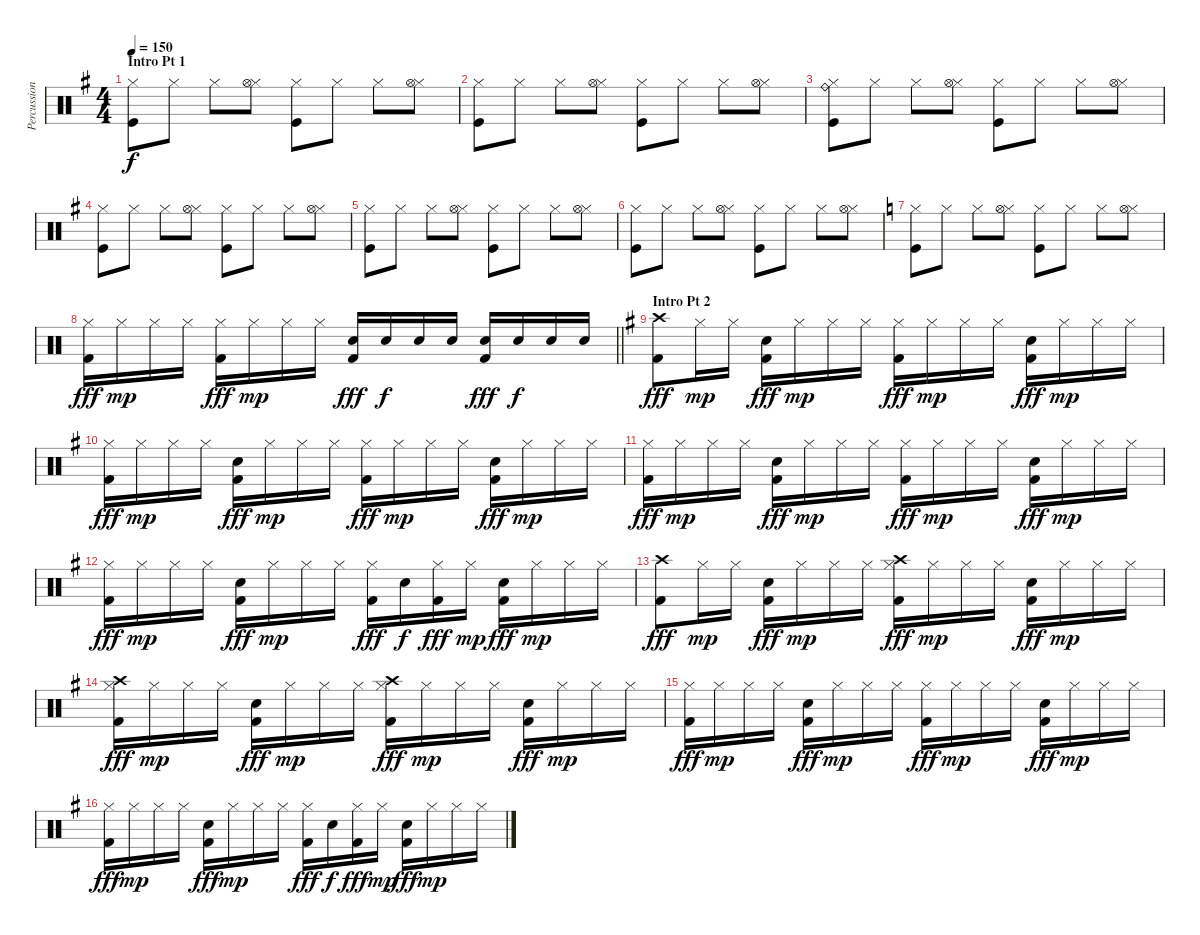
\track ("Percussion" "Percussion") {instrument percussion}
\staff {score}
\articulation defaults
\ts (4 4)
\section ("" "Intro Pt 1")
\tempo 150
\clef neutral
\ks eminor
("Hi-Hat (closed)" "Kick (hit)").8{dy f} "Hi-Hat (closed)".8 "Hi-Hat (closed)".8 ("Hi-Hat (closed)" "Hi-Hat (open)").8 ("Hi-Hat (closed)" "Kick (hit)").8 "Hi-Hat (closed)".8 "Hi-Hat (closed)".8 ("Hi-Hat (closed)" "Hi-Hat (open)").8 |
("Hi-Hat (closed)" "Kick (hit)").8 "Hi-Hat (closed)".8 "Hi-Hat (closed)".8 ("Hi-Hat (closed)" "Hi-Hat (open)").8 ("Hi-Hat (closed)" "Kick (hit)").8 "Hi-Hat (closed)".8 "Hi-Hat (closed)".8 ("Hi-Hat (closed)" "Hi-Hat (open)").8 |
("Hi-Hat (closed)" "Kick (hit)" "Ride (bell)").8 "Hi-Hat (closed)".8 "Hi-Hat (closed)".8 ("Hi-Hat (closed)" "Hi-Hat (open)").8 ("Hi-Hat (closed)" "Kick (hit)").8 "Hi-Hat (closed)".8 "Hi-Hat (closed)".8 ("Hi-Hat (closed)" "Hi-Hat (open)").8 |
("Hi-Hat (closed)" "Kick (hit)").8 "Hi-Hat (closed)".8 "Hi-Hat (closed)".8 ("Hi-Hat (closed)" "Hi-Hat (open)").8 ("Hi-Hat (closed)" "Kick (hit)").8 "Hi-Hat (closed)".8 "Hi-Hat (closed)".8 ("Hi-Hat (closed)" "Hi-Hat (open)").8 |
("Hi-Hat (closed)" "Kick (hit)").8 "Hi-Hat (closed)".8 "Hi-Hat (closed)".8 ("Hi-Hat (closed)" "Hi-Hat (open)").8 ("Hi-Hat (closed)" "Kick (hit)").8 "Hi-Hat (closed)".8 "Hi-Hat (closed)".8 ("Hi-Hat (closed)" "Hi-Hat (open)").8 |
("Hi-Hat (closed)" "Kick (hit)").8 "Hi-Hat (closed)".8 "Hi-Hat (closed)".8 ("Hi-Hat (closed)" "Hi-Hat (open)").8 ("Hi-Hat (closed)" "Kick (hit)").8 "Hi-Hat (closed)".8 "Hi-Hat (closed)".8 ("Hi-Hat (closed)" "Hi-Hat (open)").8 |
\ks c
("Hi-Hat (closed)" "Kick (hit)").8 "Hi-Hat (closed)".8 "Hi-Hat (closed)".8 ("Hi-Hat (closed)" "Hi-Hat (open)").8 ("Hi-Hat (closed)" "Kick (hit)").8 "Hi-Hat (closed)".8 "Hi-Hat (closed)".8 ("Hi-Hat (closed)" "Hi-Hat (open)").8 |
\barLineRight lightlight
("Hi-Hat (closed)" "Kick (hit) 2").16{dy fff} "Hi-Hat (closed)".16{dy mp} "Hi-Hat (closed)".16 "Hi-Hat (closed)".16 ("Hi-Hat (closed)" "Kick (hit) 2").16{dy fff} "Hi-Hat (closed)".16{dy mp} "Hi-Hat (closed)".16 "Hi-Hat (closed)".16 ("Electric Snare (hit)" "Kick (hit) 2").16{dy fff} "Electric Snare (hit)".16{dy f} "Electric Snare (hit)".16 "Electric Snare (hit)".16 ("Electric Snare (hit)" "Kick (hit) 2").16{dy fff} "Electric Snare (hit)".16{dy f} "Electric Snare (hit)".16 "Electric Snare (hit)".16 |
\section ("" "Intro Pt 2")
\ks eminor
("Crash high (hit)" "Kick (hit) 2").8{dy fff} "Hi-Hat (closed)".16{dy mp} "Hi-Hat (closed)".16 ("Electric Snare (hit)" "Kick (hit) 2").16{dy fff} "Hi-Hat (closed)".16{dy mp} "Hi-Hat (closed)".16 "Hi-Hat (closed)".16 ("Hi-Hat (closed)" "Kick (hit) 2").16{dy fff} "Hi-Hat (closed)".16{dy mp} "Hi-Hat (closed)".16 "Hi-Hat (closed)".16 ("Electric Snare (hit)" "Kick (hit) 2").16{dy fff} "Hi-Hat (closed)".16{dy mp} "Hi-Hat (closed)".16 "Hi-Hat (closed)".16 |
("Hi-Hat (closed)" "Kick (hit) 2").16{dy fff} "Hi-Hat (closed)".16{dy mp} "Hi-Hat (closed)".16 "Hi-Hat (closed)".16 ("Electric Snare (hit)" "Kick (hit) 2").16{dy fff} "Hi-Hat (closed)".16{dy mp} "Hi-Hat (closed)".16 "Hi-Hat (closed)".16 ("Hi-Hat (closed)" "Kick (hit) 2").16{dy fff} "Hi-Hat (closed)".16{dy mp} "Hi-Hat (closed)".16 "Hi-Hat (closed)".16 ("Electric Snare (hit)" "Kick (hit) 2").16{dy fff} "Hi-Hat (closed)".16{dy mp} "Hi-Hat (closed)".16 "Hi-Hat (closed)".16 |
("Hi-Hat (closed)" "Kick (hit) 2").16{dy fff} "Hi-Hat (closed)".16{dy mp} "Hi-Hat (closed)".16 "Hi-Hat (closed)".16 ("Electric Snare (hit)" "Kick (hit) 2").16{dy fff} "Hi-Hat (closed)".16{dy mp} "Hi-Hat (closed)".16 "Hi-Hat (closed)".16 ("Hi-Hat (closed)" "Kick (hit) 2").16{dy fff} "Hi-Hat (closed)".16{dy mp} "Hi-Hat (closed)".16 "Hi-Hat (closed)".16 ("Electric Snare (hit)" "Kick (hit) 2").16{dy fff} "Hi-Hat (closed)".16{dy mp} "Hi-Hat (closed)".16 "Hi-Hat (closed)".16 |
("Hi-Hat (closed)" "Kick (hit) 2").16{dy fff} "Hi-Hat (closed)".16{dy mp} "Hi-Hat (closed)".16 "Hi-Hat (closed)".16 ("Electric Snare (hit)" "Kick (hit) 2").16{dy fff} "Hi-Hat (closed)".16{dy mp} "Hi-Hat (closed)".16 "Hi-Hat (closed)".16 ("Hi-Hat (closed)" "Kick (hit) 2").16{dy fff} "Electric Snare (hit)".16{dy f} ("Hi-Hat (closed)" "Kick (hit) 2").16{dy fff} "Hi-Hat (closed)".16{dy mp} ("Electric Snare (hit)" "Kick (hit) 2").16{dy fff} "Hi-Hat (closed)".16{dy mp} "Hi-Hat (closed)".16 "Hi-Hat (closed)".16 |
("Crash high (hit)" "Kick (hit) 2").8{dy fff} "Hi-Hat (closed)".16{dy mp} "Hi-Hat (closed)".16 ("Electric Snare (hit)" "Kick (hit) 2").16{dy fff} "Hi-Hat (closed)".16{dy mp} "Hi-Hat (closed)".16 "Hi-Hat (closed)".16 ("Hi-Hat (closed)" "Crash high (hit)" "Kick (hit) 2").16{dy fff} "Hi-Hat (closed)".16{dy mp} "Hi-Hat (closed)".16 "Hi-Hat (closed)".16 ("Electric Snare (hit)" "Kick (hit) 2").16{dy fff} "Hi-Hat (closed)".16{dy mp} "Hi-Hat (closed)".16 "Hi-Hat (closed)".16 |
("Hi-Hat (closed)" "Crash high (hit)" "Kick (hit) 2").16{dy fff} "Hi-Hat (closed)".16{dy mp} "Hi-Hat (closed)".16 "Hi-Hat (closed)".16 ("Electric Snare (hit)" "Kick (hit) 2").16{dy fff} "Hi-Hat (closed)".16{dy mp} "Hi-Hat (closed)".16 "Hi-Hat (closed)".16 ("Hi-Hat (closed)" "Crash high (hit)" "Kick (hit) 2").16{dy fff} "Hi-Hat (closed)".16{dy mp} "Hi-Hat (closed)".16 "Hi-Hat (closed)".16 ("Electric Snare (hit)" "Kick (hit) 2").16{dy fff} "Hi-Hat (closed)".16{dy mp} "Hi-Hat (closed)".16 "Hi-Hat (closed)".16 |
("Hi-Hat (closed)" "Kick (hit) 2").16{dy fff} "Hi-Hat (closed)".16{dy mp} "Hi-Hat (closed)".16 "Hi-Hat (closed)".16 ("Electric Snare (hit)" "Kick (hit) 2").16{dy fff} "Hi-Hat (closed)".16{dy mp} "Hi-Hat (closed)".16 "Hi-Hat (closed)".16 ("Hi-Hat (closed)" "Kick (hit) 2").16{dy fff} "Hi-Hat (closed)".16{dy mp} "Hi-Hat (closed)".16 "Hi-Hat (closed)".16 ("Electric Snare (hit)" "Kick (hit) 2").16{dy fff} "Hi-Hat (closed)".16{dy mp} "Hi-Hat (closed)".16 "Hi-Hat (closed)".16 |
("Hi-Hat (closed)" "Kick (hit) 2").16{dy fff} "Hi-Hat (closed)".16{dy mp} "Hi-Hat (closed)".16 "Hi-Hat (closed)".16 ("Electric Snare (hit)" "Kick (hit) 2").16{dy fff} "Hi-Hat (closed)".16{dy mp} "Hi-Hat (closed)".16 "Hi-Hat (closed)".16 ("Hi-Hat (closed)" "Kick (hit) 2").16{dy fff} "Electric Snare (hit)".16{dy f} ("Hi-Hat (closed)" "Kick (hit) 2").16{dy fff} "Hi-Hat (closed)".16{dy mp} ("Electric Snare (hit)" "Kick (hit) 2").16{dy fff} "Hi-Hat (closed)".16{dy mp} "Hi-Hat (closed)".16 "Hi-Hat (closed)".16
